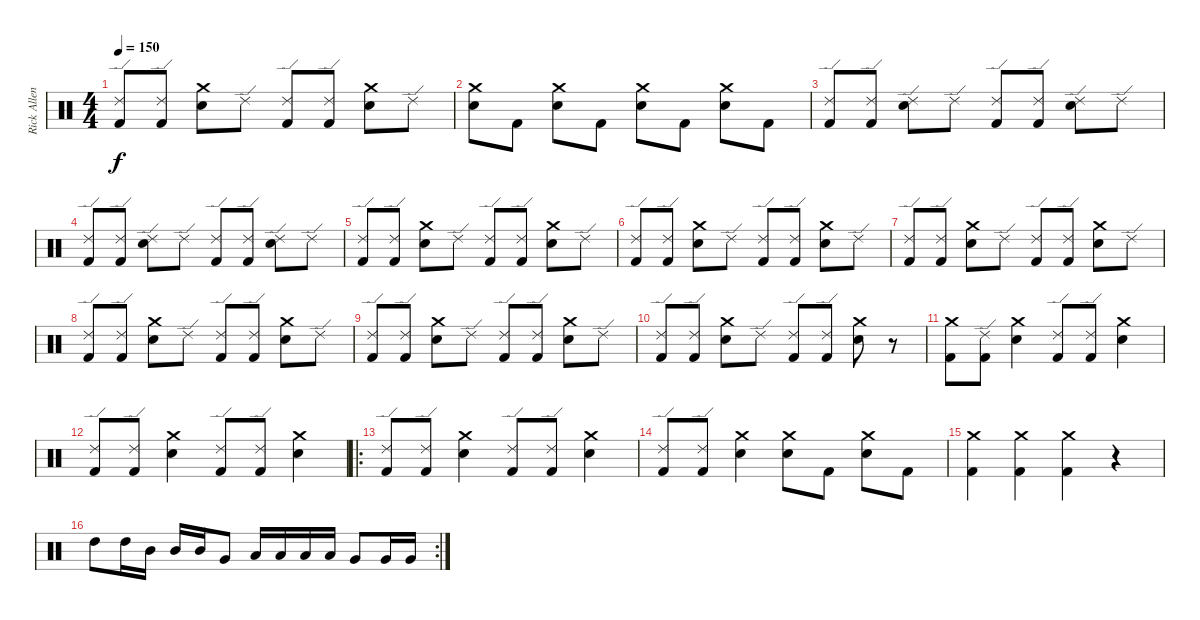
\track ("Rick Allen" "Rick Allen") {instrument percussion}
\staff {score}
\articulation defaults
\ts (4 4)
\tempo 150
\clef neutral
\ks c
("Ride (edge) 2" "Kick (hit) 2").8{dy f} ("Ride (edge) 2" "Kick (hit) 2").8 ("Crash medium (hit)" "Snare (hit) 2").8 "Ride (edge) 2".8 ("Ride (edge) 2" "Kick (hit) 2").8 ("Ride (edge) 2" "Kick (hit) 2").8 ("Crash medium (hit)" "Snare (hit) 2").8 "Ride (edge) 2".8 |
("Crash medium (hit)" "Snare (hit) 2").8 "Kick (hit) 2".8 ("Crash medium (hit)" "Snare (hit) 2").8 "Kick (hit) 2".8 ("Crash medium (hit)" "Snare (hit) 2").8 "Kick (hit) 2".8 ("Crash medium (hit)" "Snare (hit) 2").8 "Kick (hit) 2".8 |
("Ride (edge) 2" "Kick (hit) 2").8 ("Ride (edge) 2" "Kick (hit) 2").8 ("Ride (edge) 2" "Snare (hit) 2").8 "Ride (edge) 2".8 ("Ride (edge) 2" "Kick (hit) 2").8 ("Ride (edge) 2" "Kick (hit) 2").8 ("Ride (edge) 2" "Snare (hit) 2").8 "Ride (edge) 2".8 |
("Ride (edge) 2" "Kick (hit) 2").8 ("Ride (edge) 2" "Kick (hit) 2").8 ("Ride (edge) 2" "Snare (hit) 2").8 "Ride (edge) 2".8 ("Ride (edge) 2" "Kick (hit) 2").8 ("Ride (edge) 2" "Kick (hit) 2").8 ("Ride (edge) 2" "Snare (hit) 2").8 "Ride (edge) 2".8 |
("Ride (edge) 2" "Kick (hit) 2").8 ("Ride (edge) 2" "Kick (hit) 2").8 ("Crash medium (hit)" "Snare (hit) 2").8 "Ride (edge) 2".8 ("Ride (edge) 2" "Kick (hit) 2").8 ("Ride (edge) 2" "Kick (hit) 2").8 ("Crash medium (hit)" "Snare (hit) 2").8 "Ride (edge) 2".8 |
("Ride (edge) 2" "Kick (hit) 2").8 ("Ride (edge) 2" "Kick (hit) 2").8 ("Crash medium (hit)" "Snare (hit) 2").8 "Ride (edge) 2".8 ("Ride (edge) 2" "Kick (hit) 2").8 ("Ride (edge) 2" "Kick (hit) 2").8 ("Crash medium (hit)" "Snare (hit) 2").8 "Ride (edge) 2".8 |
("Ride (edge) 2" "Kick (hit) 2").8 ("Ride (edge) 2" "Kick (hit) 2").8 ("Crash medium (hit)" "Snare (hit) 2").8 "Ride (edge) 2".8 ("Ride (edge) 2" "Kick (hit) 2").8 ("Ride (edge) 2" "Kick (hit) 2").8 ("Crash medium (hit)" "Snare (hit) 2").8 "Ride (edge) 2".8 |
("Ride (edge) 2" "Kick (hit) 2").8 ("Ride (edge) 2" "Kick (hit) 2").8 ("Crash medium (hit)" "Snare (hit) 2").8 "Ride (edge) 2".8 ("Ride (edge) 2" "Kick (hit) 2").8 ("Ride (edge) 2" "Kick (hit) 2").8 ("Crash medium (hit)" "Snare (hit) 2").8 "Ride (edge) 2".8 |
("Ride (edge) 2" "Kick (hit) 2").8 ("Ride (edge) 2" "Kick (hit) 2").8 ("Crash medium (hit)" "Snare (hit) 2").8 "Ride (edge) 2".8 ("Ride (edge) 2" "Kick (hit) 2").8 ("Ride (edge) 2" "Kick (hit) 2").8 ("Crash medium (hit)" "Snare (hit) 2").8 "Ride (edge) 2".8 |
("Ride (edge) 2" "Kick (hit) 2").8 ("Ride (edge) 2" "Kick (hit) 2").8 ("Crash medium (hit)" "Snare (hit) 2").8 "Ride (edge) 2".8 ("Ride (edge) 2" "Kick (hit) 2").8 ("Ride (edge) 2" "Kick (hit) 2").8 ("Crash medium (hit)" "Snare (hit) 2").8 r.8 |
("Crash medium (hit)" "Kick (hit) 2").8 ("Ride (edge) 2" "Kick (hit) 2").8 ("Crash medium (hit)" "Snare (hit) 2").4 ("Ride (edge) 2" "Kick (hit) 2").8 ("Ride (edge) 2" "Kick (hit) 2").8 ("Crash medium (hit)" "Snare (hit) 2").4 |
("Ride (edge) 2" "Kick (hit) 2").8 ("Ride (edge) 2" "Kick (hit) 2").8 ("Crash medium (hit)" "Snare (hit) 2").4 ("Ride (edge) 2" "Kick (hit) 2").8 ("Ride (edge) 2" "Kick (hit) 2").8 ("Crash medium (hit)" "Snare (hit) 2").4 |
\ro
("Ride (edge) 2" "Kick (hit) 2").8 ("Ride (edge) 2" "Kick (hit) 2").8 ("Crash medium (hit)" "Snare (hit) 2").4 ("Ride (edge) 2" "Kick (hit) 2").8 ("Ride (edge) 2" "Kick (hit) 2").8 ("Crash medium (hit)" "Snare (hit) 2").4 |
("Ride (edge) 2" "Kick (hit) 2").8 ("Ride (edge) 2" "Kick (hit) 2").8 ("Crash medium (hit)" "Snare (hit) 2").4 ("Crash medium (hit)" "Snare (hit) 2").8 "Kick (hit) 2".8 ("Crash medium (hit)" "Snare (hit) 2").8 "Kick (hit) 2".8 |
("Crash medium (hit)" "Kick (hit) 2").4 ("Crash medium (hit)" "Kick (hit) 2").4 ("Crash medium (hit)" "Kick (hit) 2").4 r.4 |
\rc 2 "High Tom (hit)".8 "High Tom (hit)".16 "Mid Tom (hit)".16 "Mid Tom (hit)".16 "Mid Tom (hit)".16 "Very Low Tom (hit)".8 "Low Tom (hit)".16 "Low Tom (hit)".16 "Low Tom (hit)".16 "Low Tom (hit)".16 "Very Low Tom (hit)".8 "Very Low Tom (hit)".16 "Very Low Tom (hit)".16
